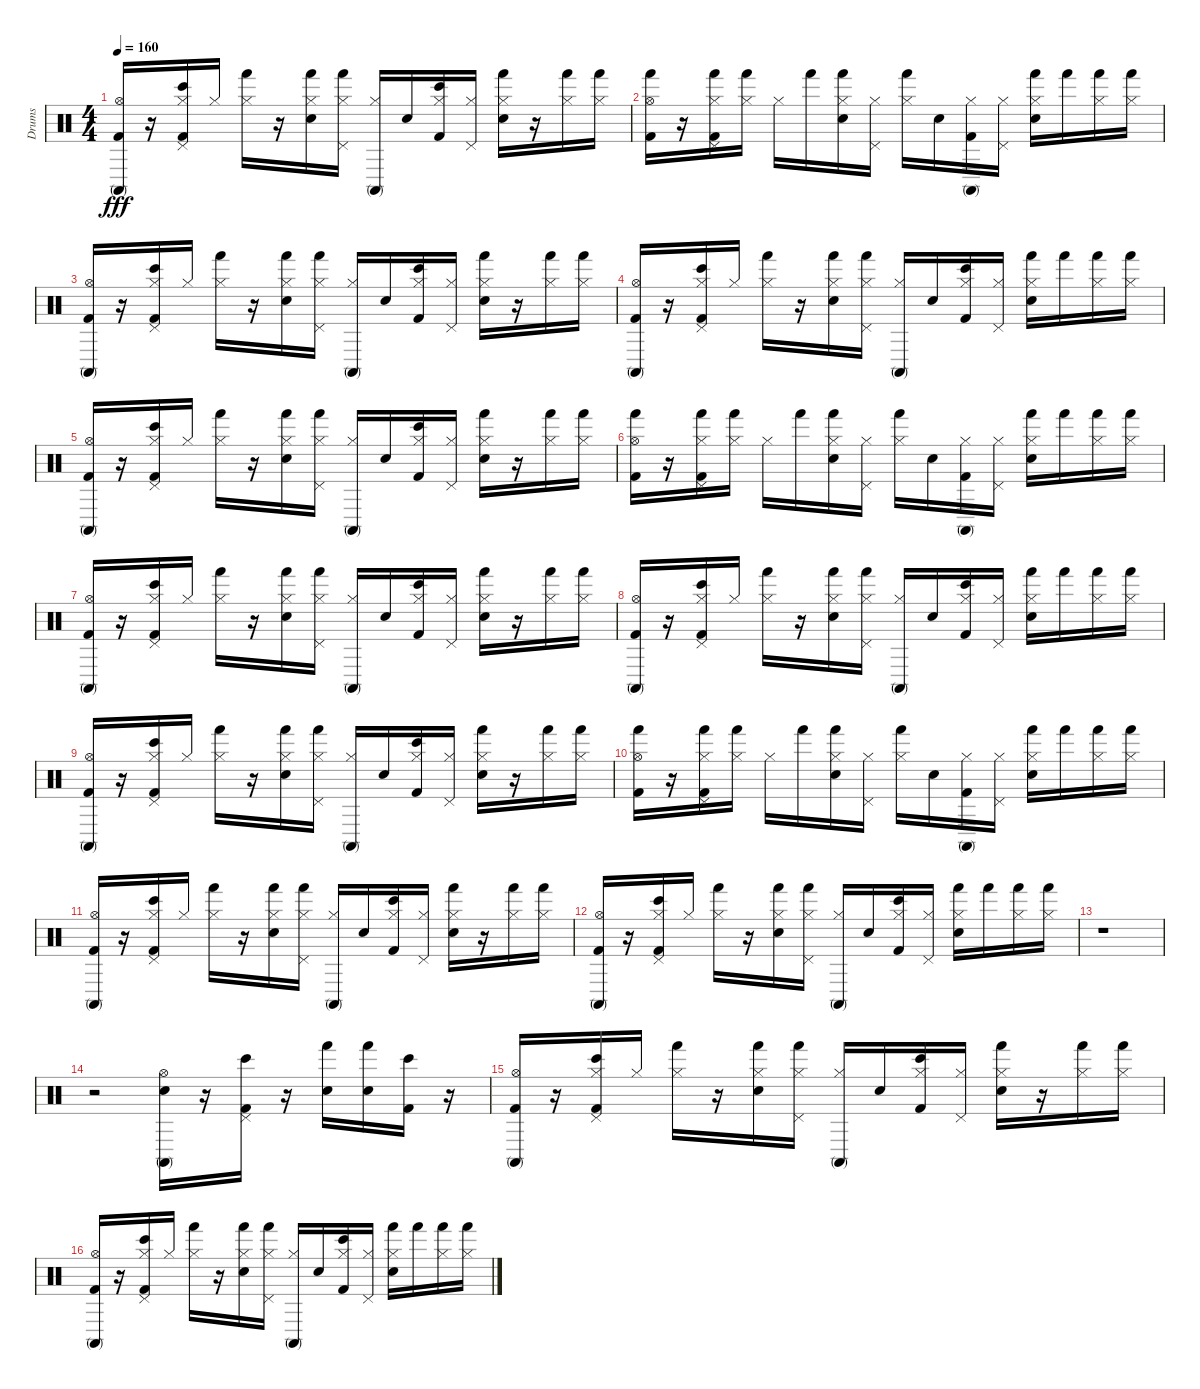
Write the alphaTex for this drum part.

\track ("Drums" "Drums") {instrument percussion}
\staff {score}
\articulation defaults
\ts (4 4)
\tempo 160
\clef neutral
\ks c
("Kick (hit) 2" "Hi-Hat (open)" "Conga high (mute)").16{dy fff} r.16 ("Pedal Hi-Hat (hit)" "Bongo High (hit)" "Kick (hit) 2" "Hi-Hat (closed)").16 "Hi-Hat (closed)".16 ("Hi-Hat (closed)" "Hand (hit)").16 r.16 ("Electric Snare (hit)" "Hi-Hat (closed)" "Hand (hit)").16 ("Hand (hit)" "Hi-Hat (closed)" "Pedal Hi-Hat (hit)").16 ("Hi-Hat (closed)" "Conga high (mute)").16 "Electric Snare (hit)".16 ("Bongo High (hit)" "Hi-Hat (closed)" "Kick (hit) 2").16 ("Pedal Hi-Hat (hit)" "Hi-Hat (closed)").16 ("Hand (hit)" "Electric Snare (hit)" "Hi-Hat (closed)").16 r.16 ("Hi-Hat (closed)" "Hand (hit)").16 ("Hand (hit)" "Hi-Hat (closed)").16 |
("Hand (hit)" "Hi-Hat (open)" "Kick (hit) 2").16 r.16 ("Pedal Hi-Hat (hit)" "Hand (hit)" "Kick (hit) 2" "Hi-Hat (closed)").16 ("Hi-Hat (closed)" "Hand (hit)").16 "Hi-Hat (closed)".16 "Hand (hit)".16 ("Hand (hit)" "Hi-Hat (closed)" "Electric Snare (hit)").16 ("Pedal Hi-Hat (hit)" "Hi-Hat (closed)").16 ("Hand (hit)" "Hi-Hat (closed)").16 "Electric Snare (hit)".16 ("Conga high (mute)" "Hi-Hat (closed)" "Kick (hit) 2").16 ("Pedal Hi-Hat (hit)" "Hi-Hat (closed)").16 ("Electric Snare (hit)" "Hand (hit)" "Hi-Hat (closed)").16 "Hand (hit)".16 ("Hi-Hat (closed)" "Hand (hit)").16 ("Hi-Hat (closed)" "Hand (hit)").16 |
("Hi-Hat (open)" "Kick (hit) 2" "Conga high (mute)").16 r.16 ("Kick (hit) 2" "Hi-Hat (closed)" "Pedal Hi-Hat (hit)" "Bongo High (hit)").16 "Hi-Hat (closed)".16 ("Hi-Hat (closed)" "Hand (hit)").16 r.16 ("Hi-Hat (closed)" "Electric Snare (hit)" "Hand (hit)").16 ("Hi-Hat (closed)" "Pedal Hi-Hat (hit)" "Hand (hit)").16 ("Conga high (mute)" "Hi-Hat (closed)").16 "Electric Snare (hit)".16 ("Hi-Hat (closed)" "Bongo High (hit)" "Kick (hit) 2").16 ("Pedal Hi-Hat (hit)" "Hi-Hat (closed)").16 ("Electric Snare (hit)" "Hand (hit)" "Hi-Hat (closed)").16 r.16 ("Hi-Hat (closed)" "Hand (hit)").16 ("Hand (hit)" "Hi-Hat (closed)").16 |
("Hi-Hat (open)" "Kick (hit) 2" "Conga high (mute)").16 r.16 ("Kick (hit) 2" "Pedal Hi-Hat (hit)" "Bongo High (hit)" "Hi-Hat (closed)").16 "Hi-Hat (closed)".16 ("Hi-Hat (closed)" "Hand (hit)").16 r.16 ("Electric Snare (hit)" "Hand (hit)" "Hi-Hat (closed)").16 ("Hi-Hat (closed)" "Hand (hit)" "Pedal Hi-Hat (hit)").16 ("Conga high (mute)" "Hi-Hat (closed)").16 "Electric Snare (hit)".16 ("Hi-Hat (closed)" "Bongo High (hit)" "Kick (hit) 2").16 ("Pedal Hi-Hat (hit)" "Hi-Hat (closed)").16 ("Electric Snare (hit)" "Hi-Hat (closed)" "Hand (hit)").16 "Hand (hit)".16 ("Hi-Hat (closed)" "Hand (hit)").16 ("Hi-Hat (closed)" "Hand (hit)").16 |
("Hi-Hat (open)" "Conga high (mute)" "Kick (hit) 2").16 r.16 ("Kick (hit) 2" "Pedal Hi-Hat (hit)" "Hi-Hat (closed)" "Bongo High (hit)").16 "Hi-Hat (closed)".16 ("Hi-Hat (closed)" "Hand (hit)").16 r.16 ("Electric Snare (hit)" "Hi-Hat (closed)" "Hand (hit)").16 ("Hand (hit)" "Hi-Hat (closed)" "Pedal Hi-Hat (hit)").16 ("Conga high (mute)" "Hi-Hat (closed)").16 "Electric Snare (hit)".16 ("Kick (hit) 2" "Bongo High (hit)" "Hi-Hat (closed)").16 ("Pedal Hi-Hat (hit)" "Hi-Hat (closed)").16 ("Electric Snare (hit)" "Hi-Hat (closed)" "Hand (hit)").16 r.16 ("Hi-Hat (closed)" "Hand (hit)").16 ("Hand (hit)" "Hi-Hat (closed)").16 |
("Kick (hit) 2" "Hand (hit)" "Hi-Hat (open)").16 r.16 ("Kick (hit) 2" "Hand (hit)" "Pedal Hi-Hat (hit)" "Hi-Hat (closed)").16 ("Hi-Hat (closed)" "Hand (hit)").16 "Hi-Hat (closed)".16 "Hand (hit)".16 ("Hand (hit)" "Electric Snare (hit)" "Hi-Hat (closed)").16 ("Pedal Hi-Hat (hit)" "Hi-Hat (closed)").16 ("Hand (hit)" "Hi-Hat (closed)").16 "Electric Snare (hit)".16 ("Kick (hit) 2" "Conga high (mute)" "Hi-Hat (closed)").16 ("Hi-Hat (closed)" "Pedal Hi-Hat (hit)").16 ("Hand (hit)" "Hi-Hat (closed)" "Electric Snare (hit)").16 "Hand (hit)".16 ("Hi-Hat (closed)" "Hand (hit)").16 ("Hi-Hat (closed)" "Hand (hit)").16 |
("Hi-Hat (open)" "Conga high (mute)" "Kick (hit) 2").16 r.16 ("Pedal Hi-Hat (hit)" "Bongo High (hit)" "Hi-Hat (closed)" "Kick (hit) 2").16 "Hi-Hat (closed)".16 ("Hand (hit)" "Hi-Hat (closed)").16 r.16 ("Electric Snare (hit)" "Hi-Hat (closed)" "Hand (hit)").16 ("Hand (hit)" "Pedal Hi-Hat (hit)" "Hi-Hat (closed)").16 ("Hi-Hat (closed)" "Conga high (mute)").16 "Electric Snare (hit)".16 ("Kick (hit) 2" "Hi-Hat (closed)" "Bongo High (hit)").16 ("Pedal Hi-Hat (hit)" "Hi-Hat (closed)").16 ("Hand (hit)" "Hi-Hat (closed)" "Electric Snare (hit)").16 r.16 ("Hi-Hat (closed)" "Hand (hit)").16 ("Hi-Hat (closed)" "Hand (hit)").16 |
("Hi-Hat (open)" "Conga high (mute)" "Kick (hit) 2").16 r.16 ("Bongo High (hit)" "Pedal Hi-Hat (hit)" "Hi-Hat (closed)" "Kick (hit) 2").16 "Hi-Hat (closed)".16 ("Hand (hit)" "Hi-Hat (closed)").16 r.16 ("Hand (hit)" "Hi-Hat (closed)" "Electric Snare (hit)").16 ("Hi-Hat (closed)" "Pedal Hi-Hat (hit)" "Hand (hit)").16 ("Conga high (mute)" "Hi-Hat (closed)").16 "Electric Snare (hit)".16 ("Hi-Hat (closed)" "Kick (hit) 2" "Bongo High (hit)").16 ("Hi-Hat (closed)" "Pedal Hi-Hat (hit)").16 ("Hi-Hat (closed)" "Electric Snare (hit)" "Hand (hit)").16 "Hand (hit)".16 ("Hi-Hat (closed)" "Hand (hit)").16 ("Hi-Hat (closed)" "Hand (hit)").16 |
("Kick (hit) 2" "Hi-Hat (open)" "Conga high (mute)").16 r.16 ("Hi-Hat (closed)" "Pedal Hi-Hat (hit)" "Kick (hit) 2" "Bongo High (hit)").16 "Hi-Hat (closed)".16 ("Hi-Hat (closed)" "Hand (hit)").16 r.16 ("Hand (hit)" "Electric Snare (hit)" "Hi-Hat (closed)").16 ("Pedal Hi-Hat (hit)" "Hand (hit)" "Hi-Hat (closed)").16 ("Hi-Hat (closed)" "Conga high (mute)").16 "Electric Snare (hit)".16 ("Bongo High (hit)" "Hi-Hat (closed)" "Kick (hit) 2").16 ("Hi-Hat (closed)" "Pedal Hi-Hat (hit)").16 ("Hand (hit)" "Electric Snare (hit)" "Hi-Hat (closed)").16 r.16 ("Hand (hit)" "Hi-Hat (closed)").16 ("Hi-Hat (closed)" "Hand (hit)").16 |
("Kick (hit) 2" "Hi-Hat (open)" "Hand (hit)").16 r.16 ("Pedal Hi-Hat (hit)" "Hi-Hat (closed)" "Kick (hit) 2" "Hand (hit)").16 ("Hi-Hat (closed)" "Hand (hit)").16 "Hi-Hat (closed)".16 "Hand (hit)".16 ("Electric Snare (hit)" "Hand (hit)" "Hi-Hat (closed)").16 ("Hi-Hat (closed)" "Pedal Hi-Hat (hit)").16 ("Hand (hit)" "Hi-Hat (closed)").16 "Electric Snare (hit)".16 ("Kick (hit) 2" "Conga high (mute)" "Hi-Hat (closed)").16 ("Pedal Hi-Hat (hit)" "Hi-Hat (closed)").16 ("Electric Snare (hit)" "Hi-Hat (closed)" "Hand (hit)").16 "Hand (hit)".16 ("Hi-Hat (closed)" "Hand (hit)").16 ("Hand (hit)" "Hi-Hat (closed)").16 |
("Hi-Hat (open)" "Kick (hit) 2" "Conga high (mute)").16 r.16 ("Hi-Hat (closed)" "Pedal Hi-Hat (hit)" "Kick (hit) 2" "Bongo High (hit)").16 "Hi-Hat (closed)".16 ("Hand (hit)" "Hi-Hat (closed)").16 r.16 ("Hi-Hat (closed)" "Electric Snare (hit)" "Hand (hit)").16 ("Hi-Hat (closed)" "Pedal Hi-Hat (hit)" "Hand (hit)").16 ("Conga high (mute)" "Hi-Hat (closed)").16 "Electric Snare (hit)".16 ("Kick (hit) 2" "Bongo High (hit)" "Hi-Hat (closed)").16 ("Hi-Hat (closed)" "Pedal Hi-Hat (hit)").16 ("Electric Snare (hit)" "Hi-Hat (closed)" "Hand (hit)").16 r.16 ("Hand (hit)" "Hi-Hat (closed)").16 ("Hi-Hat (closed)" "Hand (hit)").16 |
("Kick (hit) 2" "Hi-Hat (open)" "Conga high (mute)").16 r.16 ("Hi-Hat (closed)" "Pedal Hi-Hat (hit)" "Bongo High (hit)" "Kick (hit) 2").16 "Hi-Hat (closed)".16 ("Hand (hit)" "Hi-Hat (closed)").16 r.16 ("Hi-Hat (closed)" "Hand (hit)" "Electric Snare (hit)").16 ("Hi-Hat (closed)" "Pedal Hi-Hat (hit)" "Hand (hit)").16 ("Conga high (mute)" "Hi-Hat (closed)").16 "Electric Snare (hit)".16 ("Bongo High (hit)" "Kick (hit) 2" "Hi-Hat (closed)").16 ("Hi-Hat (closed)" "Pedal Hi-Hat (hit)").16 ("Hi-Hat (closed)" "Hand (hit)" "Electric Snare (hit)").16 "Hand (hit)".16 ("Hi-Hat (closed)" "Hand (hit)").16 ("Hi-Hat (closed)" "Hand (hit)").16 |
r.1 |
r.2 ("Electric Snare (hit)" "Hi-Hat (open)" "Conga high (mute)").16 r.16 ("Bongo High (hit)" "Pedal Hi-Hat (hit)" "Kick (hit) 2").16 r.16 ("Electric Snare (hit)" "Hand (hit)").16 ("Hand (hit)" "Electric Snare (hit)").16 ("Bongo High (hit)" "Kick (hit) 2").16 r.16 |
("Kick (hit) 2" "Hi-Hat (open)" "Conga high (mute)").16 r.16 ("Bongo High (hit)" "Hi-Hat (closed)" "Kick (hit) 2" "Pedal Hi-Hat (hit)").16 "Hi-Hat (closed)".16 ("Hi-Hat (closed)" "Hand (hit)").16 r.16 ("Hi-Hat (closed)" "Electric Snare (hit)" "Hand (hit)").16 ("Hand (hit)" "Hi-Hat (closed)" "Pedal Hi-Hat (hit)").16 ("Hi-Hat (closed)" "Conga high (mute)").16 "Electric Snare (hit)".16 ("Bongo High (hit)" "Kick (hit) 2" "Hi-Hat (closed)").16 ("Pedal Hi-Hat (hit)" "Hi-Hat (closed)").16 ("Hi-Hat (closed)" "Hand (hit)" "Electric Snare (hit)").16 r.16 ("Hi-Hat (closed)" "Hand (hit)").16 ("Hand (hit)" "Hi-Hat (closed)").16 |
("Hi-Hat (open)" "Kick (hit) 2" "Conga high (mute)").16 r.16 ("Pedal Hi-Hat (hit)" "Hi-Hat (closed)" "Bongo High (hit)" "Kick (hit) 2").16 "Hi-Hat (closed)".16 ("Hand (hit)" "Hi-Hat (closed)").16 r.16 ("Hand (hit)" "Electric Snare (hit)" "Hi-Hat (closed)").16 ("Hi-Hat (closed)" "Pedal Hi-Hat (hit)" "Hand (hit)").16 ("Hi-Hat (closed)" "Conga high (mute)").16 "Electric Snare (hit)".16 ("Bongo High (hit)" "Kick (hit) 2" "Hi-Hat (closed)").16 ("Pedal Hi-Hat (hit)" "Hi-Hat (closed)").16 ("Hi-Hat (closed)" "Electric Snare (hit)" "Hand (hit)").16 "Hand (hit)".16 ("Hi-Hat (closed)" "Hand (hit)").16 ("Hi-Hat (closed)" "Hand (hit)").16
